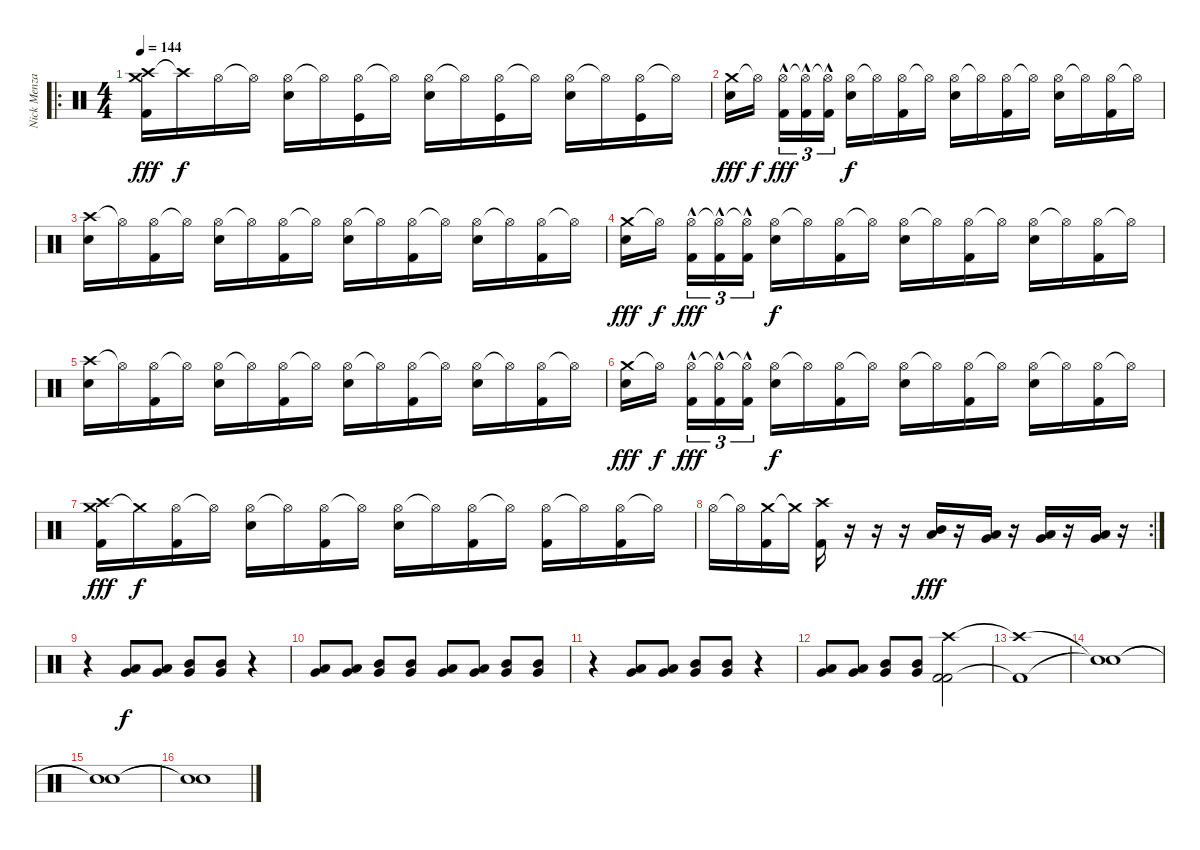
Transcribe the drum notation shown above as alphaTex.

\track ("Nick Menza" "Nick Menza") {instrument percussion}
\staff {score}
\articulation defaults
\ro
\ts (4 4)
\tempo 144
\clef neutral
\ks c
("Crash high (hit)" "Crash medium (hit)" "Kick (hit) 2").16{dy fff} "Crash high (hit)"{t}.16{dy f} "Hi-Hat (open)".16 "Hi-Hat (open)"{t}.16 ("Hi-Hat (open)" "Electric Snare (hit)").16 "Hi-Hat (open)"{t}.16 ("Hi-Hat (open)" "Kick (hit)").16 "Hi-Hat (open)"{t}.16 ("Hi-Hat (open)" "Electric Snare (hit)").16 "Hi-Hat (open)"{t}.16 ("Hi-Hat (open)" "Kick (hit)").16 "Hi-Hat (open)"{t}.16 ("Hi-Hat (open)" "Electric Snare (hit)").16 "Hi-Hat (open)"{t}.16 ("Hi-Hat (open)" "Kick (hit)").16 "Hi-Hat (open)"{t}.16 |
("Crash medium (hit)" "Electric Snare (hit)").16{dy fff} "Hi-Hat (open)"{t}.16{dy f beam splitsecondary} ("Hi-Hat (open)" "Kick (hit) 2"{hac}).16{tu (3 2) dy fff} ("Hi-Hat (open)"{t} "Kick (hit) 2"{hac}).16{tu (3 2)} ("Hi-Hat (open)"{t} "Kick (hit) 2"{hac}).16{tu (3 2)} ("Hi-Hat (open)" "Electric Snare (hit)").16{dy f} "Hi-Hat (open)"{t}.16 ("Hi-Hat (open)" "Kick (hit) 2").16 "Hi-Hat (open)"{t}.16 ("Hi-Hat (open)" "Electric Snare (hit)").16 "Hi-Hat (open)"{t}.16 ("Hi-Hat (open)" "Kick (hit) 2").16 "Hi-Hat (open)"{t}.16 ("Hi-Hat (open)" "Electric Snare (hit)").16 "Hi-Hat (open)"{t}.16 ("Hi-Hat (open)" "Kick (hit) 2").16 "Hi-Hat (open)"{t}.16 |
("Crash high (hit)" "Electric Snare (hit)").16 "Hi-Hat (open)"{t}.16 ("Hi-Hat (open)" "Kick (hit) 2").16 "Hi-Hat (open)"{t}.16 ("Hi-Hat (open)" "Electric Snare (hit)").16 "Hi-Hat (open)"{t}.16 ("Hi-Hat (open)" "Kick (hit) 2").16 "Hi-Hat (open)"{t}.16 ("Hi-Hat (open)" "Electric Snare (hit)").16 "Hi-Hat (open)"{t}.16 ("Hi-Hat (open)" "Kick (hit) 2").16 "Hi-Hat (open)"{t}.16 ("Hi-Hat (open)" "Electric Snare (hit)").16 "Hi-Hat (open)"{t}.16 ("Hi-Hat (open)" "Kick (hit) 2").16 "Hi-Hat (open)"{t}.16 |
("Crash medium (hit)" "Electric Snare (hit)").16{dy fff} "Hi-Hat (open)"{t}.16{dy f beam splitsecondary} ("Hi-Hat (open)" "Kick (hit) 2"{hac}).16{tu (3 2) dy fff} ("Hi-Hat (open)"{t} "Kick (hit) 2"{hac}).16{tu (3 2)} ("Hi-Hat (open)"{t} "Kick (hit) 2"{hac}).16{tu (3 2)} ("Hi-Hat (open)" "Electric Snare (hit)").16{dy f} "Hi-Hat (open)"{t}.16 ("Hi-Hat (open)" "Kick (hit) 2").16 "Hi-Hat (open)"{t}.16 ("Hi-Hat (open)" "Electric Snare (hit)").16 "Hi-Hat (open)"{t}.16 ("Hi-Hat (open)" "Kick (hit) 2").16 "Hi-Hat (open)"{t}.16 ("Hi-Hat (open)" "Electric Snare (hit)").16 "Hi-Hat (open)"{t}.16 ("Hi-Hat (open)" "Kick (hit) 2").16 "Hi-Hat (open)"{t}.16 |
("Crash high (hit)" "Electric Snare (hit)").16 "Hi-Hat (open)"{t}.16 ("Hi-Hat (open)" "Kick (hit) 2").16 "Hi-Hat (open)"{t}.16 ("Hi-Hat (open)" "Electric Snare (hit)").16 "Hi-Hat (open)"{t}.16 ("Hi-Hat (open)" "Kick (hit) 2").16 "Hi-Hat (open)"{t}.16 ("Hi-Hat (open)" "Electric Snare (hit)").16 "Hi-Hat (open)"{t}.16 ("Hi-Hat (open)" "Kick (hit) 2").16 "Hi-Hat (open)"{t}.16 ("Hi-Hat (open)" "Electric Snare (hit)").16 "Hi-Hat (open)"{t}.16 ("Hi-Hat (open)" "Kick (hit) 2").16 "Hi-Hat (open)"{t}.16 |
("Crash medium (hit)" "Electric Snare (hit)").16{dy fff} "Hi-Hat (open)"{t}.16{dy f beam splitsecondary} ("Hi-Hat (open)" "Kick (hit) 2"{hac}).16{tu (3 2) dy fff} ("Hi-Hat (open)"{t} "Kick (hit) 2"{hac}).16{tu (3 2)} ("Hi-Hat (open)"{t} "Kick (hit) 2"{hac}).16{tu (3 2)} ("Hi-Hat (open)" "Electric Snare (hit)").16{dy f} "Hi-Hat (open)"{t}.16 ("Hi-Hat (open)" "Kick (hit) 2").16 "Hi-Hat (open)"{t}.16 ("Hi-Hat (open)" "Electric Snare (hit)").16 "Hi-Hat (open)"{t}.16 ("Hi-Hat (open)" "Kick (hit) 2").16 "Hi-Hat (open)"{t}.16 ("Hi-Hat (open)" "Electric Snare (hit)").16 "Hi-Hat (open)"{t}.16 ("Hi-Hat (open)" "Kick (hit) 2").16 "Hi-Hat (open)"{t}.16 |
("Crash medium (hit)" "Crash high (hit)" "Kick (hit) 2").16{dy fff} "Crash medium (hit)"{t}.16{dy f} ("Hi-Hat (open)" "Kick (hit) 2").16 "Hi-Hat (open)"{t}.16 ("Hi-Hat (open)" "Electric Snare (hit)").16 "Hi-Hat (open)"{t}.16 ("Hi-Hat (open)" "Kick (hit) 2").16 "Hi-Hat (open)"{t}.16 ("Hi-Hat (open)" "Electric Snare (hit)").16 "Hi-Hat (open)"{t}.16 ("Hi-Hat (open)" "Kick (hit) 2").16 "Hi-Hat (open)"{t}.16 ("Hi-Hat (open)" "Kick (hit) 2").16 "Hi-Hat (open)"{t}.16 ("Hi-Hat (open)" "Kick (hit) 2").16 "Hi-Hat (open)"{t}.16 |
\rc 2 "Hi-Hat (open)".16 "Hi-Hat (open)"{t}.16
("Crash medium (hit)" "Kick (hit) 2").16 "Crash medium (hit)"{t}.16 ("Crash high (hit)" "Kick (hit) 2").16 r.16 r.16 r.16 ("Mid Tom (hit)" "Low Tom (hit)").16{dy fff} r.16 ("Low Tom (hit)" "Very Low Tom (hit)").16 r.16 ("Low Tom (hit)" "Very Low Tom (hit)").16 r.16 ("Very Low Tom (hit)" "Low Floor Tom (hit)").16 r.16 |
r.4 ("Very Low Tom (hit)" "Low Tom (hit)").8{dy f} ("Very Low Tom (hit)" "Low Tom (hit)").8 ("Mid Tom (hit)" "Very Low Tom (hit)").8 ("Mid Tom (hit)" "Very Low Tom (hit)").8 r.4 |
("Very Low Tom (hit)" "Low Tom (hit)").8 ("Very Low Tom (hit)" "Low Tom (hit)").8 ("Mid Tom (hit)" "Very Low Tom (hit)").8 ("Mid Tom (hit)" "Very Low Tom (hit)").8 ("Very Low Tom (hit)" "Low Tom (hit)").8 ("Very Low Tom (hit)" "Low Tom (hit)").8 ("Mid Tom (hit)" "Very Low Tom (hit)").8 ("Mid Tom (hit)" "Very Low Tom (hit)").8 |
r.4 ("Very Low Tom (hit)" "Low Tom (hit)").8 ("Very Low Tom (hit)" "Low Tom (hit)").8 ("Mid Tom (hit)" "Very Low Tom (hit)").8 ("Mid Tom (hit)" "Very Low Tom (hit)").8 r.4 |
("Very Low Tom (hit)" "Low Tom (hit)").8 ("Very Low Tom (hit)" "Low Tom (hit)").8 ("Mid Tom (hit)" "Very Low Tom (hit)").8 ("Mid Tom (hit)" "Very Low Tom (hit)").8 ("Kick (hit) 2" "Crash high (hit)" "Kick (hit) 2").2 |
("Kick (hit) 2"{t} "Crash high (hit)"{t}).1 |
("Snare (hit)"{t} "Snare (hit)"{t}).1 |
("Snare (hit)"{t} "Snare (hit)"{t}).1 |
("Snare (hit)"{t} "Snare (hit)"{t}).1
